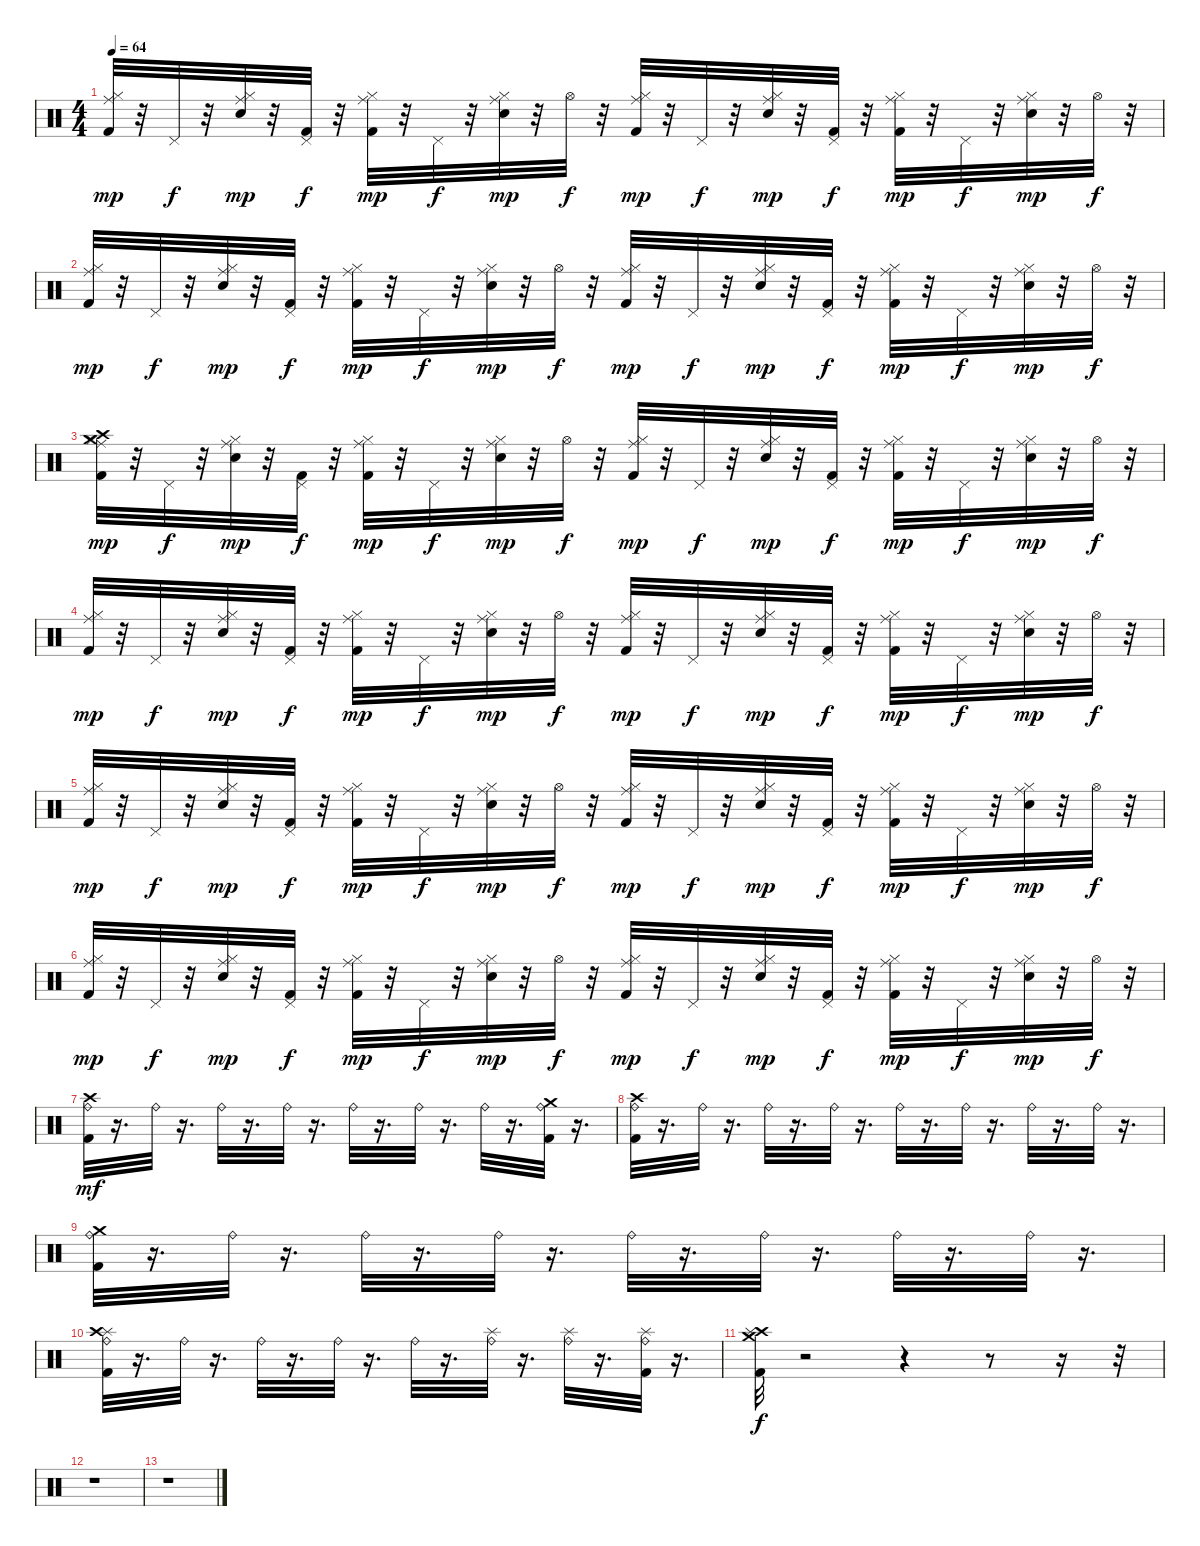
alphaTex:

\track "" {instrument percussion}
\staff {score}
\articulation defaults
\ts (4 4)
\tempo 64
\clef neutral
\ks c
("Ride (middle)" "Hi-Hat (closed)" "Kick (hit) 2").32{dy mp} r.32 "Pedal Hi-Hat (hit)".32{dy f} r.32 ("Ride (middle)" "Hi-Hat (closed)" "Snare (hit) 2").32{dy mp} r.32 ("Pedal Hi-Hat (hit)" "Kick (hit) 2").32{dy f} r.32 ("Ride (middle)" "Hi-Hat (closed)" "Kick (hit) 2").32{dy mp} r.32 "Pedal Hi-Hat (hit)".32{dy f} r.32 ("Snare (hit) 2" "Ride (middle)" "Hi-Hat (closed)").32{dy mp} r.32 "Hi-Hat (open)".32{dy f} r.32 ("Kick (hit) 2" "Hi-Hat (closed)" "Ride (middle)").32{dy mp} r.32 "Pedal Hi-Hat (hit)".32{dy f} r.32 ("Snare (hit) 2" "Hi-Hat (closed)" "Ride (middle)").32{dy mp} r.32 ("Kick (hit) 2" "Pedal Hi-Hat (hit)").32{dy f} r.32 ("Kick (hit) 2" "Hi-Hat (closed)" "Ride (middle)").32{dy mp} r.32 "Pedal Hi-Hat (hit)".32{dy f} r.32 ("Snare (hit) 2" "Hi-Hat (closed)" "Ride (middle)").32{dy mp} r.32 "Hi-Hat (open)".32{dy f} r.32 |
("Ride (middle)" "Hi-Hat (closed)" "Kick (hit) 2").32{dy mp} r.32 "Pedal Hi-Hat (hit)".32{dy f} r.32 ("Ride (middle)" "Hi-Hat (closed)" "Snare (hit) 2").32{dy mp} r.32 ("Pedal Hi-Hat (hit)" "Kick (hit) 2").32{dy f} r.32 ("Ride (middle)" "Hi-Hat (closed)" "Kick (hit) 2").32{dy mp} r.32 "Pedal Hi-Hat (hit)".32{dy f} r.32 ("Snare (hit) 2" "Ride (middle)" "Hi-Hat (closed)").32{dy mp} r.32 "Hi-Hat (open)".32{dy f} r.32 ("Kick (hit) 2" "Hi-Hat (closed)" "Ride (middle)").32{dy mp} r.32 "Pedal Hi-Hat (hit)".32{dy f} r.32 ("Snare (hit) 2" "Hi-Hat (closed)" "Ride (middle)").32{dy mp} r.32 ("Kick (hit) 2" "Pedal Hi-Hat (hit)").32{dy f} r.32 ("Kick (hit) 2" "Hi-Hat (closed)" "Ride (middle)").32{dy mp} r.32 "Pedal Hi-Hat (hit)".32{dy f} r.32 ("Snare (hit) 2" "Hi-Hat (closed)" "Ride (middle)").32{dy mp} r.32 "Hi-Hat (open)".32{dy f} r.32 |
("Crash medium (hit)" "Crash high (hit)" "Ride (middle)" "Hi-Hat (closed)" "Kick (hit) 2").32{dy mp} r.32 "Pedal Hi-Hat (hit)".32{dy f} r.32 ("Ride (middle)" "Hi-Hat (closed)" "Snare (hit) 2").32{dy mp} r.32 ("Pedal Hi-Hat (hit)" "Kick (hit) 2").32{dy f} r.32 ("Ride (middle)" "Hi-Hat (closed)" "Kick (hit) 2").32{dy mp} r.32 "Pedal Hi-Hat (hit)".32{dy f} r.32 ("Snare (hit) 2" "Ride (middle)" "Hi-Hat (closed)").32{dy mp} r.32 "Hi-Hat (open)".32{dy f} r.32 ("Kick (hit) 2" "Hi-Hat (closed)" "Ride (middle)").32{dy mp} r.32 "Pedal Hi-Hat (hit)".32{dy f} r.32 ("Snare (hit) 2" "Hi-Hat (closed)" "Ride (middle)").32{dy mp} r.32 ("Kick (hit) 2" "Pedal Hi-Hat (hit)").32{dy f} r.32 ("Kick (hit) 2" "Hi-Hat (closed)" "Ride (middle)").32{dy mp} r.32 "Pedal Hi-Hat (hit)".32{dy f} r.32 ("Snare (hit) 2" "Hi-Hat (closed)" "Ride (middle)").32{dy mp} r.32 "Hi-Hat (open)".32{dy f} r.32 |
("Ride (middle)" "Hi-Hat (closed)" "Kick (hit) 2").32{dy mp} r.32 "Pedal Hi-Hat (hit)".32{dy f} r.32 ("Ride (middle)" "Hi-Hat (closed)" "Snare (hit) 2").32{dy mp} r.32 ("Pedal Hi-Hat (hit)" "Kick (hit) 2").32{dy f} r.32 ("Ride (middle)" "Hi-Hat (closed)" "Kick (hit) 2").32{dy mp} r.32 "Pedal Hi-Hat (hit)".32{dy f} r.32 ("Snare (hit) 2" "Ride (middle)" "Hi-Hat (closed)").32{dy mp} r.32 "Hi-Hat (open)".32{dy f} r.32 ("Kick (hit) 2" "Hi-Hat (closed)" "Ride (middle)").32{dy mp} r.32 "Pedal Hi-Hat (hit)".32{dy f} r.32 ("Snare (hit) 2" "Hi-Hat (closed)" "Ride (middle)").32{dy mp} r.32 ("Kick (hit) 2" "Pedal Hi-Hat (hit)").32{dy f} r.32 ("Kick (hit) 2" "Hi-Hat (closed)" "Ride (middle)").32{dy mp} r.32 "Pedal Hi-Hat (hit)".32{dy f} r.32 ("Snare (hit) 2" "Hi-Hat (closed)" "Ride (middle)").32{dy mp} r.32 "Hi-Hat (open)".32{dy f} r.32 |
("Ride (middle)" "Hi-Hat (closed)" "Kick (hit) 2").32{dy mp} r.32 "Pedal Hi-Hat (hit)".32{dy f} r.32 ("Ride (middle)" "Hi-Hat (closed)" "Snare (hit) 2").32{dy mp} r.32 ("Pedal Hi-Hat (hit)" "Kick (hit) 2").32{dy f} r.32 ("Ride (middle)" "Hi-Hat (closed)" "Kick (hit) 2").32{dy mp} r.32 "Pedal Hi-Hat (hit)".32{dy f} r.32 ("Snare (hit) 2" "Ride (middle)" "Hi-Hat (closed)").32{dy mp} r.32 "Hi-Hat (open)".32{dy f} r.32 ("Kick (hit) 2" "Hi-Hat (closed)" "Ride (middle)").32{dy mp} r.32 "Pedal Hi-Hat (hit)".32{dy f} r.32 ("Snare (hit) 2" "Hi-Hat (closed)" "Ride (middle)").32{dy mp} r.32 ("Kick (hit) 2" "Pedal Hi-Hat (hit)").32{dy f} r.32 ("Kick (hit) 2" "Hi-Hat (closed)" "Ride (middle)").32{dy mp} r.32 "Pedal Hi-Hat (hit)".32{dy f} r.32 ("Snare (hit) 2" "Hi-Hat (closed)" "Ride (middle)").32{dy mp} r.32 "Hi-Hat (open)".32{dy f} r.32 |
("Ride (middle)" "Hi-Hat (closed)" "Kick (hit) 2").32{dy mp} r.32 "Pedal Hi-Hat (hit)".32{dy f} r.32 ("Ride (middle)" "Hi-Hat (closed)" "Snare (hit) 2").32{dy mp} r.32 ("Pedal Hi-Hat (hit)" "Kick (hit) 2").32{dy f} r.32 ("Ride (middle)" "Hi-Hat (closed)" "Kick (hit) 2").32{dy mp} r.32 "Pedal Hi-Hat (hit)".32{dy f} r.32 ("Snare (hit) 2" "Ride (middle)" "Hi-Hat (closed)").32{dy mp} r.32 "Hi-Hat (open)".32{dy f} r.32 ("Kick (hit) 2" "Hi-Hat (closed)" "Ride (middle)").32{dy mp} r.32 "Pedal Hi-Hat (hit)".32{dy f} r.32 ("Snare (hit) 2" "Hi-Hat (closed)" "Ride (middle)").32{dy mp} r.32 ("Kick (hit) 2" "Pedal Hi-Hat (hit)").32{dy f} r.32 ("Kick (hit) 2" "Hi-Hat (closed)" "Ride (middle)").32{dy mp} r.32 "Pedal Hi-Hat (hit)".32{dy f} r.32 ("Snare (hit) 2" "Hi-Hat (closed)" "Ride (middle)").32{dy mp} r.32 "Hi-Hat (open)".32{dy f} r.32 |
("Ride (bell)" "Kick (hit) 2" "Crash high (hit)").32{dy mf} r.16{d} "Ride (bell)".32 r.16{d} "Ride (bell)".32 r.16{d} "Ride (bell)".32 r.16{d} "Ride (bell)".32 r.16{d} "Ride (bell)".32 r.16{d} "Ride (bell)".32 r.16{d} ("Ride (bell)" "Crash medium (hit)" "Kick (hit) 2").32 r.16{d} |
("Ride (bell)" "Crash high (hit)" "Kick (hit) 2").32 r.16{d} "Ride (bell)".32 r.16{d} "Ride (bell)".32 r.16{d} "Ride (bell)".32 r.16{d} "Ride (bell)".32 r.16{d} "Ride (bell)".32 r.16{d} "Ride (bell)".32 r.16{d} "Ride (bell)".32 r.16{d} |
("Ride (bell)" "Kick (hit) 2" "Crash medium (hit)").32 r.16{d} "Ride (bell)".32 r.16{d} "Ride (bell)".32 r.16{d} "Ride (bell)".32 r.16{d} "Ride (bell)".32 r.16{d} "Ride (bell)".32 r.16{d} "Ride (bell)".32 r.16{d} "Ride (bell)".32 r.16{d} |
("Splash (hit)" "Ride (bell)" "Crash high (hit)" "Kick (hit) 2").32 r.16{d} "Ride (bell)".32 r.16{d} "Ride (bell)".32 r.16{d} "Ride (bell)".32 r.16{d} "Ride (bell)".32 r.16{d} ("Splash (hit)" "Ride (bell)").32 r.16{d} ("Splash (hit)" "Ride (bell)").32 r.16{d} ("Splash (hit)" "Kick (hit) 2" "Ride (bell)").32 r.16{d} |
("Crash medium (hit)" "Crash high (hit)" "Splash (hit)" "Kick (hit) 2").32{dy f} r.2 r.4 r.8 r.16 r.32 |
r.1 |
r.1
